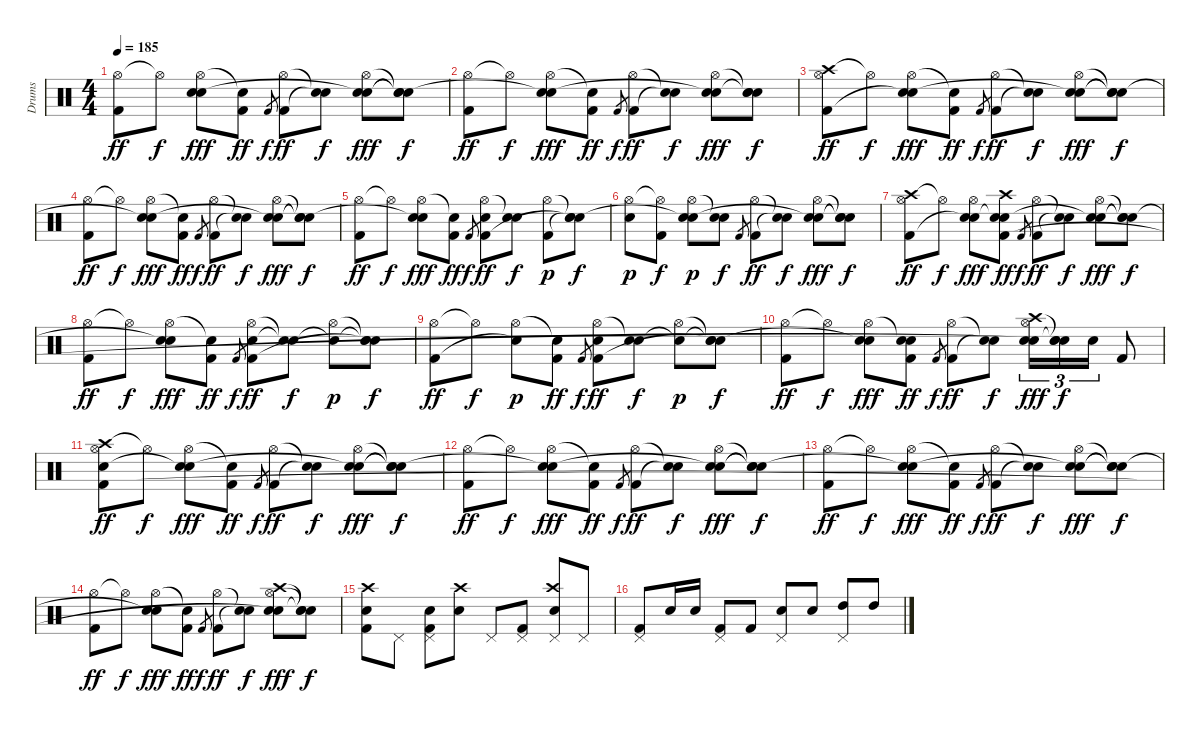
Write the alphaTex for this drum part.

\track ("Drums" "Drums") {instrument percussion}
\staff {score}
\articulation defaults
\ts (4 4)
\tempo 185
\clef neutral
\ks c
("Hi-Hat (open)" "Kick (hit) 2").8{dy ff} "Hi-Hat (open)"{t}.8{dy f} ("Hi-Hat (open)" "Electric Snare (hit)" "Snare (hit)"{t}).8{dy fff} ("Snare (hit)"{t} "Kick (hit) 2").8{dy ff} "Kick (hit) 2".8{gr dy f} ("Hi-Hat (open)" "Kick (hit) 2").8{dy ff} ("Snare (hit)"{t} "Snare (hit)"{t}).8{dy f} ("Hi-Hat (open)" "Electric Snare (hit)" "Snare (hit)"{t}).8{dy fff} ("Snare (hit)"{t} "Snare (hit)"{t} "Snare (hit)"{t}).8{dy f} |
("Hi-Hat (open)" "Kick (hit) 2").8{dy ff} "Hi-Hat (open)"{t}.8{dy f} ("Hi-Hat (open)" "Electric Snare (hit)" "Snare (hit)"{t}).8{dy fff} ("Snare (hit)"{t} "Kick (hit) 2").8{dy ff} "Kick (hit) 2".8{gr dy f} ("Hi-Hat (open)" "Kick (hit) 2").8{dy ff} ("Snare (hit)"{t} "Snare (hit)"{t}).8{dy f} ("Hi-Hat (open)" "Electric Snare (hit)" "Snare (hit)"{t}).8{dy fff} ("Snare (hit)"{t} "Electric Snare (hit)" "Snare (hit)"{t}).8{dy f} |
("Crash high (hit)" "Hi-Hat (open)" "Kick (hit) 2").8{dy ff} "Hi-Hat (open)"{t}.8{dy f} ("Hi-Hat (open)" "Electric Snare (hit)" "Snare (hit)"{t}).8{dy fff} ("Snare (hit)"{t} "Kick (hit) 2").8{dy ff} "Kick (hit) 2".8{gr dy f} ("Hi-Hat (open)" "Kick (hit) 2").8{dy ff} ("Snare (hit)"{t} "Snare (hit)"{t}).8{dy f} ("Hi-Hat (open)" "Electric Snare (hit)" "Snare (hit)"{t}).8{dy fff} ("Snare (hit)"{t} "Snare (hit)"{t} "Snare (hit)"{t}).8{dy f} |
("Hi-Hat (open)" "Kick (hit) 2").8{dy ff} "Hi-Hat (open)"{t}.8{dy f} ("Hi-Hat (open)" "Electric Snare (hit)" "Snare (hit)"{t}).8{dy fff} ("Snare (hit)"{t} "Kick (hit) 2").8{dy ff} "Kick (hit) 2".8{gr dy f} ("Hi-Hat (open)" "Kick (hit) 2").8{dy ff} ("Snare (hit)"{t} "Snare (hit)"{t}).8{dy f} ("Hi-Hat (open)" "Electric Snare (hit)" "Snare (hit)"{t}).8{dy fff} ("Snare (hit)"{t} "Snare (hit)"{t} "Snare (hit)"{t}).8{dy f} |
("Hi-Hat (open)" "Kick (hit) 2").8{dy ff} "Hi-Hat (open)"{t}.8{dy f} ("Hi-Hat (open)" "Electric Snare (hit)" "Snare (hit)"{t}).8{dy fff} ("Snare (hit)"{t} "Kick (hit) 2").8{dy ff} "Kick (hit) 2".8{gr dy f} ("Hi-Hat (open)" "Electric Snare (hit)" "Kick (hit) 2").8{dy ff} ("Snare (hit)"{t} "Electric Snare (hit)").8{dy f} ("Hi-Hat (open)" "Kick (hit) 2").8{dy p} ("Snare (hit)"{t} "Snare (hit)"{t} "Snare (hit)"{t}).8{dy f} |
("Hi-Hat (open)" "Electric Snare (hit)").8{dy p} ("Hi-Hat (open)"{t} "Kick (hit) 2").8{dy f} ("Hi-Hat (open)" "Electric Snare (hit)" "Snare (hit)"{t}).8{dy p} ("Snare (hit)"{t} "Electric Snare (hit)").8{dy f} "Kick (hit) 2".8{gr} ("Hi-Hat (open)" "Kick (hit) 2").8{dy ff} ("Snare (hit)"{t} "Snare (hit)"{t}).8{dy f} ("Hi-Hat (open)" "Electric Snare (hit)" "Snare (hit)"{t}).8{dy fff} ("Snare (hit)"{t} "Snare (hit)"{t} "Snare (hit)"{t}).8{dy f} |
("Crash high (hit)" "Hi-Hat (open)" "Kick (hit) 2").8{dy ff} "Hi-Hat (open)"{t}.8{dy f} ("Hi-Hat (open)" "Electric Snare (hit)" "Snare (hit)"{t}).8{dy fff} ("Crash high (hit)" "Snare (hit)"{t} "Electric Snare (hit)" "Kick (hit) 2").8{dy ff} "Kick (hit) 2".8{gr dy f} ("Hi-Hat (open)" "Kick (hit) 2").8{dy ff} ("Snare (hit)"{t} "Snare (hit)"{t}).8{dy f} ("Hi-Hat (open)" "Electric Snare (hit)" "Snare (hit)"{t}).8{dy fff} ("Snare (hit)"{t} "Snare (hit)"{t} "Snare (hit)"{t}).8{dy f} |
("Hi-Hat (open)" "Kick (hit) 2").8{dy ff} "Hi-Hat (open)"{t}.8{dy f} ("Hi-Hat (open)" "Electric Snare (hit)" "Snare (hit)"{t}).8{dy fff} ("Snare (hit)"{t} "Kick (hit) 2").8{dy ff} "Kick (hit) 2".8{gr dy f} ("Hi-Hat (open)" "Electric Snare (hit)" "Kick (hit) 2").8{dy ff} ("Snare (hit)"{t} "Snare (hit)"{t}).8{dy f} ("Hi-Hat (open)" "Snare (hit)"{t}).8{dy p} ("Snare (hit)"{t} "Snare (hit)"{t} "Snare (hit)"{t}).8{dy f} |
("Hi-Hat (open)" "Kick (hit) 2").8{dy ff} "Hi-Hat (open)"{t}.8{dy f} ("Hi-Hat (open)" "Snare (hit)"{t}).8{dy p} ("Snare (hit)"{t} "Kick (hit) 2").8{dy ff} "Kick (hit) 2".8{gr dy f} ("Hi-Hat (open)" "Electric Snare (hit)" "Kick (hit) 2").8{dy ff} ("Snare (hit)"{t} "Electric Snare (hit)").8{dy f} ("Hi-Hat (open)" "Snare (hit)"{t}).8{dy p} ("Snare (hit)"{t} "Snare (hit)"{t} "Snare (hit)"{t}).8{dy f} |
("Hi-Hat (open)" "Kick (hit) 2").8{dy ff} "Hi-Hat (open)"{t}.8{dy f} ("Hi-Hat (open)" "Electric Snare (hit)" "Snare (hit)"{t}).8{dy fff} ("Snare (hit)"{t} "Electric Snare (hit)" "Kick (hit) 2").8{dy ff} "Kick (hit) 2".8{gr dy f} ("Hi-Hat (open)" "Kick (hit) 2").8{dy ff} ("Snare (hit)"{t} "Snare (hit)"{t}).8{dy f} ("Crash high (hit)" "Hi-Hat (open)" "Electric Snare (hit)" "Snare (hit)"{t}).16{tu (3 2) dy fff} ("Snare (hit)"{t} "Electric Snare (hit)" "Snare (hit)"{t}).16{tu (3 2) dy f} "Electric Snare (hit)".16{tu (3 2)} "Kick (hit) 2".8 |
("Crash high (hit)" "Hi-Hat (open)" "Electric Snare (hit)" "Kick (hit) 2").8{dy ff} "Hi-Hat (open)"{t}.8{dy f} ("Hi-Hat (open)" "Electric Snare (hit)" "Snare (hit)"{t}).8{dy fff} ("Snare (hit)"{t} "Kick (hit) 2").8{dy ff} "Kick (hit) 2".8{gr dy f} ("Hi-Hat (open)" "Kick (hit) 2").8{dy ff} ("Snare (hit)"{t} "Snare (hit)"{t}).8{dy f} ("Hi-Hat (open)" "Electric Snare (hit)" "Snare (hit)"{t}).8{dy fff} ("Snare (hit)"{t} "Snare (hit)"{t} "Snare (hit)"{t}).8{dy f} |
("Hi-Hat (open)" "Kick (hit) 2").8{dy ff} "Hi-Hat (open)"{t}.8{dy f} ("Hi-Hat (open)" "Electric Snare (hit)" "Snare (hit)"{t}).8{dy fff} ("Snare (hit)"{t} "Kick (hit) 2").8{dy ff} "Kick (hit) 2".8{gr dy f} ("Hi-Hat (open)" "Kick (hit) 2").8{dy ff} ("Snare (hit)"{t} "Snare (hit)"{t}).8{dy f} ("Hi-Hat (open)" "Electric Snare (hit)" "Snare (hit)"{t}).8{dy fff} ("Snare (hit)"{t} "Snare (hit)"{t} "Snare (hit)"{t}).8{dy f} |
("Hi-Hat (open)" "Kick (hit) 2").8{dy ff} "Hi-Hat (open)"{t}.8{dy f} ("Hi-Hat (open)" "Electric Snare (hit)" "Snare (hit)"{t}).8{dy fff} ("Snare (hit)"{t} "Kick (hit) 2").8{dy ff} "Kick (hit) 2".8{gr dy f} ("Hi-Hat (open)" "Kick (hit) 2").8{dy ff} ("Snare (hit)"{t} "Snare (hit)"{t}).8{dy f} ("Hi-Hat (open)" "Electric Snare (hit)" "Snare (hit)"{t}).8{dy fff} ("Snare (hit)"{t} "Snare (hit)"{t} "Snare (hit)"{t}).8{dy f} |
("Hi-Hat (open)" "Kick (hit) 2").8{dy ff} "Hi-Hat (open)"{t}.8{dy f} ("Hi-Hat (open)" "Electric Snare (hit)" "Snare (hit)"{t}).8{dy fff} ("Snare (hit)"{t} "Kick (hit) 2").8{dy ff} "Kick (hit) 2".8{gr dy f} ("Hi-Hat (open)" "Kick (hit) 2").8{dy ff} ("Snare (hit)"{t} "Snare (hit)"{t}).8{dy f} ("Crash high (hit)" "Hi-Hat (open)" "Electric Snare (hit)" "Snare (hit)"{t}).8{dy fff} ("Snare (hit)"{t} "Snare (hit)"{t} "Snare (hit)"{t}).8{dy f} |
("Crash high (hit)" "Electric Snare (hit)" "Kick (hit) 2").8 "Pedal Hi-Hat (hit)".8 ("Pedal Hi-Hat (hit)" "Electric Snare (hit)" "Kick (hit) 2").8 ("Crash high (hit)" "Electric Snare (hit)").8 "Pedal Hi-Hat (hit)".8 ("Pedal Hi-Hat (hit)" "Kick (hit) 2").8 ("Crash high (hit)" "Pedal Hi-Hat (hit)" "Electric Snare (hit)").8 "Pedal Hi-Hat (hit)".8 |
("Pedal Hi-Hat (hit)" "Kick (hit) 2").8 "Electric Snare (hit)".16 "Electric Snare (hit)".16 ("Pedal Hi-Hat (hit)" "Kick (hit) 2").8 "Kick (hit) 2".8 ("Pedal Hi-Hat (hit)" "Electric Snare (hit)").8 "Electric Snare (hit)".8 ("Pedal Hi-Hat (hit)" "High Tom (hit)").8 "High Tom (hit)".8
